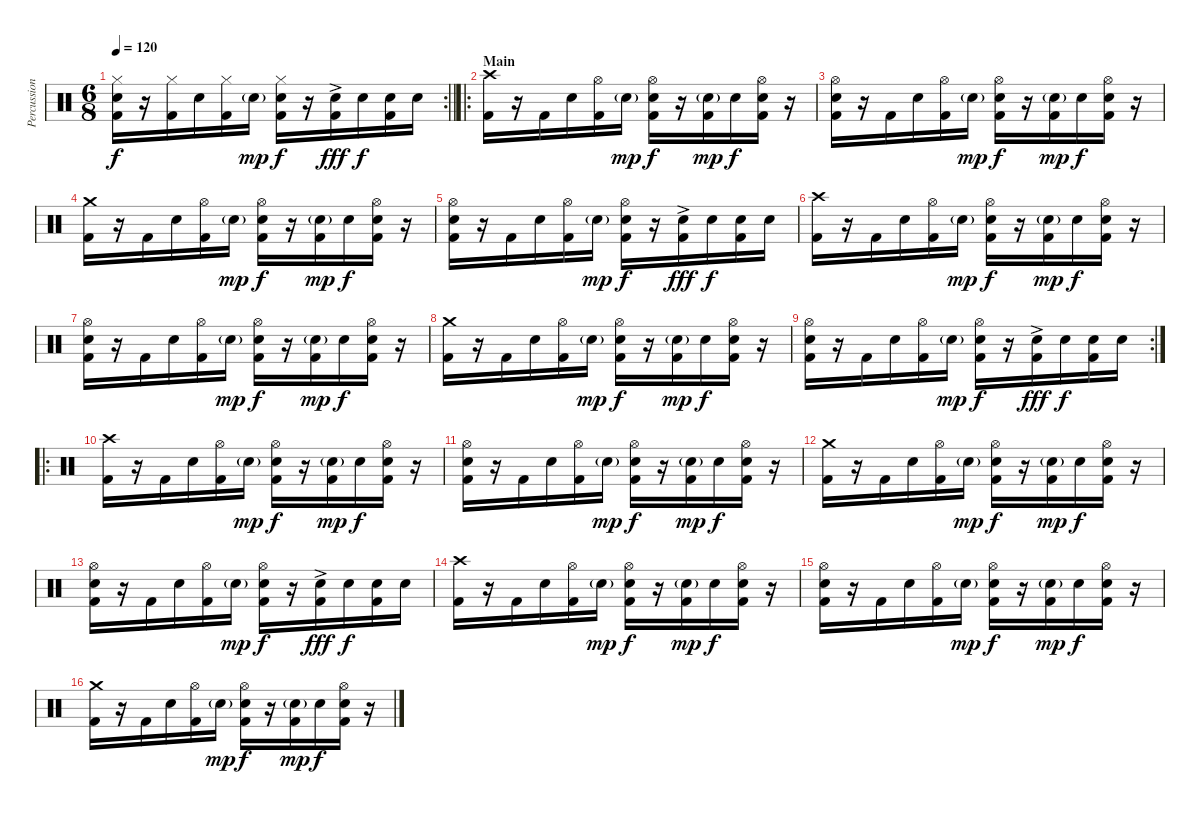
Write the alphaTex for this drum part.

\track ("Percussion" "Percussion") {instrument percussion}
\staff {score}
\articulation defaults
\rc 2
\ts (6 8)
\tempo 120
\clef neutral
\barLineRight lightlight
\ks c
("Hi-Hat (closed)" "Snare (hit) 2" "Kick (hit) 2").16{dy f} r.16 ("Hi-Hat (closed)" "Kick (hit) 2").16 "Snare (hit) 2".16 ("Hi-Hat (closed)" "Kick (hit) 2").16 "Snare (hit) 2"{g}.16{dy mp} ("Hi-Hat (closed)" "Snare (hit) 2" "Kick (hit) 2").16{dy f} r.16 ("Snare (hit) 2"{ac} "Kick (hit) 2").16{dy fff} "Snare (hit) 2".16{dy f} ("Snare (hit) 2" "Kick (hit) 2").16 "Snare (hit) 2".16 |
\ro
\section ("" "Main")
("Crash high (hit)" "Kick (hit) 2").16 r.16 "Kick (hit) 2".16 "Snare (hit) 2".16 ("Hi-Hat (open)" "Kick (hit) 2").16 "Snare (hit) 2"{g}.16{dy mp} ("Hi-Hat (open)" "Snare (hit) 2" "Kick (hit) 2").16{dy f} r.16 ("Snare (hit) 2"{g} "Kick (hit) 2").16{dy mp} "Snare (hit) 2".16{dy f} ("Hi-Hat (open)" "Snare (hit) 2" "Kick (hit) 2").16 r.16 |
("Hi-Hat (open)" "Snare (hit) 2" "Kick (hit) 2").16 r.16 "Kick (hit) 2".16 "Snare (hit) 2".16 ("Hi-Hat (open)" "Kick (hit) 2").16 "Snare (hit) 2"{g}.16{dy mp} ("Hi-Hat (open)" "Snare (hit) 2" "Kick (hit) 2").16{dy f} r.16 ("Snare (hit) 2"{g} "Kick (hit) 2").16{dy mp} "Snare (hit) 2".16{dy f} ("Hi-Hat (open)" "Snare (hit) 2" "Kick (hit) 2").16 r.16 |
("Crash medium (hit)" "Kick (hit) 2").16 r.16 "Kick (hit) 2".16 "Snare (hit) 2".16 ("Hi-Hat (open)" "Kick (hit) 2").16 "Snare (hit) 2"{g}.16{dy mp} ("Hi-Hat (open)" "Snare (hit) 2" "Kick (hit) 2").16{dy f} r.16 ("Snare (hit) 2"{g} "Kick (hit) 2").16{dy mp} "Snare (hit) 2".16{dy f} ("Hi-Hat (open)" "Snare (hit) 2" "Kick (hit) 2").16 r.16 |
("Hi-Hat (open)" "Snare (hit) 2" "Kick (hit) 2").16 r.16 "Kick (hit) 2".16 "Snare (hit) 2".16 ("Hi-Hat (open)" "Kick (hit) 2").16 "Snare (hit) 2"{g}.16{dy mp} ("Hi-Hat (open)" "Snare (hit) 2" "Kick (hit) 2").16{dy f} r.16 ("Snare (hit) 2"{ac} "Kick (hit) 2").16{dy fff} "Snare (hit) 2".16{dy f} ("Snare (hit) 2" "Kick (hit) 2").16 "Snare (hit) 2".16 |
("Crash high (hit)" "Kick (hit) 2").16 r.16 "Kick (hit) 2".16 "Snare (hit) 2".16 ("Hi-Hat (open)" "Kick (hit) 2").16 "Snare (hit) 2"{g}.16{dy mp} ("Hi-Hat (open)" "Snare (hit) 2" "Kick (hit) 2").16{dy f} r.16 ("Snare (hit) 2"{g} "Kick (hit) 2").16{dy mp} "Snare (hit) 2".16{dy f} ("Hi-Hat (open)" "Snare (hit) 2" "Kick (hit) 2").16 r.16 |
("Hi-Hat (open)" "Snare (hit) 2" "Kick (hit) 2").16 r.16 "Kick (hit) 2".16 "Snare (hit) 2".16 ("Hi-Hat (open)" "Kick (hit) 2").16 "Snare (hit) 2"{g}.16{dy mp} ("Hi-Hat (open)" "Snare (hit) 2" "Kick (hit) 2").16{dy f} r.16 ("Snare (hit) 2"{g} "Kick (hit) 2").16{dy mp} "Snare (hit) 2".16{dy f} ("Hi-Hat (open)" "Snare (hit) 2" "Kick (hit) 2").16 r.16 |
("Crash medium (hit)" "Kick (hit) 2").16 r.16 "Kick (hit) 2".16 "Snare (hit) 2".16 ("Hi-Hat (open)" "Kick (hit) 2").16 "Snare (hit) 2"{g}.16{dy mp} ("Hi-Hat (open)" "Snare (hit) 2" "Kick (hit) 2").16{dy f} r.16 ("Snare (hit) 2"{g} "Kick (hit) 2").16{dy mp} "Snare (hit) 2".16{dy f} ("Hi-Hat (open)" "Snare (hit) 2" "Kick (hit) 2").16 r.16 |
\rc 2
("Hi-Hat (open)" "Snare (hit) 2" "Kick (hit) 2").16 r.16 "Kick (hit) 2".16 "Snare (hit) 2".16 ("Hi-Hat (open)" "Kick (hit) 2").16 "Snare (hit) 2"{g}.16{dy mp} ("Hi-Hat (open)" "Snare (hit) 2" "Kick (hit) 2").16{dy f} r.16 ("Snare (hit) 2"{ac} "Kick (hit) 2").16{dy fff} "Snare (hit) 2".16{dy f} ("Snare (hit) 2" "Kick (hit) 2").16 "Snare (hit) 2".16 |
\ro
("Crash high (hit)" "Kick (hit) 2").16 r.16 "Kick (hit) 2".16 "Snare (hit) 2".16 ("Hi-Hat (open)" "Kick (hit) 2").16 "Snare (hit) 2"{g}.16{dy mp} ("Hi-Hat (open)" "Snare (hit) 2" "Kick (hit) 2").16{dy f} r.16 ("Snare (hit) 2"{g} "Kick (hit) 2").16{dy mp} "Snare (hit) 2".16{dy f} ("Hi-Hat (open)" "Snare (hit) 2" "Kick (hit) 2").16 r.16 |
("Hi-Hat (open)" "Snare (hit) 2" "Kick (hit) 2").16 r.16 "Kick (hit) 2".16 "Snare (hit) 2".16 ("Hi-Hat (open)" "Kick (hit) 2").16 "Snare (hit) 2"{g}.16{dy mp} ("Hi-Hat (open)" "Snare (hit) 2" "Kick (hit) 2").16{dy f} r.16 ("Snare (hit) 2"{g} "Kick (hit) 2").16{dy mp} "Snare (hit) 2".16{dy f} ("Hi-Hat (open)" "Snare (hit) 2" "Kick (hit) 2").16 r.16 |
("Crash medium (hit)" "Kick (hit) 2").16 r.16 "Kick (hit) 2".16 "Snare (hit) 2".16 ("Hi-Hat (open)" "Kick (hit) 2").16 "Snare (hit) 2"{g}.16{dy mp} ("Hi-Hat (open)" "Snare (hit) 2" "Kick (hit) 2").16{dy f} r.16 ("Snare (hit) 2"{g} "Kick (hit) 2").16{dy mp} "Snare (hit) 2".16{dy f} ("Hi-Hat (open)" "Snare (hit) 2" "Kick (hit) 2").16 r.16 |
("Hi-Hat (open)" "Snare (hit) 2" "Kick (hit) 2").16 r.16 "Kick (hit) 2".16 "Snare (hit) 2".16 ("Hi-Hat (open)" "Kick (hit) 2").16 "Snare (hit) 2"{g}.16{dy mp} ("Hi-Hat (open)" "Snare (hit) 2" "Kick (hit) 2").16{dy f} r.16 ("Snare (hit) 2"{ac} "Kick (hit) 2").16{dy fff} "Snare (hit) 2".16{dy f} ("Snare (hit) 2" "Kick (hit) 2").16 "Snare (hit) 2".16 |
("Crash high (hit)" "Kick (hit) 2").16 r.16 "Kick (hit) 2".16 "Snare (hit) 2".16 ("Hi-Hat (open)" "Kick (hit) 2").16 "Snare (hit) 2"{g}.16{dy mp} ("Hi-Hat (open)" "Snare (hit) 2" "Kick (hit) 2").16{dy f} r.16 ("Snare (hit) 2"{g} "Kick (hit) 2").16{dy mp} "Snare (hit) 2".16{dy f} ("Hi-Hat (open)" "Snare (hit) 2" "Kick (hit) 2").16 r.16 |
("Hi-Hat (open)" "Snare (hit) 2" "Kick (hit) 2").16 r.16 "Kick (hit) 2".16 "Snare (hit) 2".16 ("Hi-Hat (open)" "Kick (hit) 2").16 "Snare (hit) 2"{g}.16{dy mp} ("Hi-Hat (open)" "Snare (hit) 2" "Kick (hit) 2").16{dy f} r.16 ("Snare (hit) 2"{g} "Kick (hit) 2").16{dy mp} "Snare (hit) 2".16{dy f} ("Hi-Hat (open)" "Snare (hit) 2" "Kick (hit) 2").16 r.16 |
("Crash medium (hit)" "Kick (hit) 2").16 r.16 "Kick (hit) 2".16 "Snare (hit) 2".16 ("Hi-Hat (open)" "Kick (hit) 2").16 "Snare (hit) 2"{g}.16{dy mp} ("Hi-Hat (open)" "Snare (hit) 2" "Kick (hit) 2").16{dy f} r.16 ("Snare (hit) 2"{g} "Kick (hit) 2").16{dy mp} "Snare (hit) 2".16{dy f} ("Hi-Hat (open)" "Snare (hit) 2" "Kick (hit) 2").16 r.16
